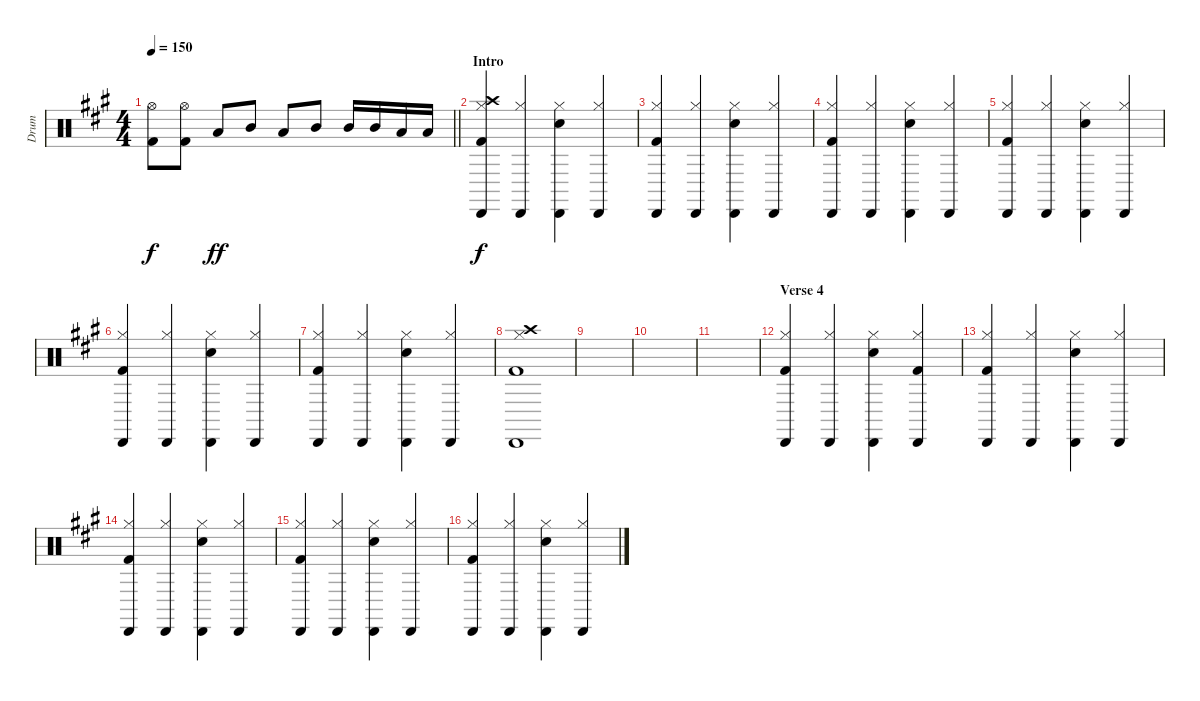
\track ("Drum " "Drum ") {instrument percussion}
\staff {score}
\articulation defaults
\ts (4 4)
\tempo 150
\clef neutral
\barLineRight lightlight
\ks a
("Hi-Hat (open)" "Kick (hit) 2").8{dy f} ("Hi-Hat (open)" "Kick (hit) 2").8 "Low Tom (hit)".8{dy ff} "Mid Tom (hit)".8 "Low Tom (hit)".8 "Mid Tom (hit)".8 "Mid Tom (hit)".16 "Mid Tom (hit)".16 "Low Tom (hit)".16 "Low Tom (hit)".16 |
\section ("" "Intro")
("Hi-Hat (closed)" "Crash high (hit)" "Cabasa (hit)" "Kick (hit) 2").4{dy f} ("Hi-Hat (closed)" "Cabasa (hit)").4 ("Hi-Hat (closed)" "Snare (hit) 2" "Cabasa (hit)").4 ("Hi-Hat (closed)" "Cabasa (hit)").4 |
("Hi-Hat (closed)" "Cabasa (hit)" "Kick (hit) 2").4 ("Hi-Hat (closed)" "Cabasa (hit)").4 ("Hi-Hat (closed)" "Snare (hit) 2" "Cabasa (hit)").4 ("Hi-Hat (closed)" "Cabasa (hit)").4 |
("Hi-Hat (closed)" "Cabasa (hit)" "Kick (hit) 2").4 ("Hi-Hat (closed)" "Cabasa (hit)").4 ("Hi-Hat (closed)" "Snare (hit) 2" "Cabasa (hit)").4 ("Hi-Hat (closed)" "Cabasa (hit)").4 |
("Hi-Hat (closed)" "Cabasa (hit)" "Kick (hit) 2").4 ("Hi-Hat (closed)" "Cabasa (hit)").4 ("Hi-Hat (closed)" "Snare (hit) 2" "Cabasa (hit)").4 ("Hi-Hat (closed)" "Cabasa (hit)").4 |
("Hi-Hat (closed)" "Cabasa (hit)" "Kick (hit) 2").4 ("Hi-Hat (closed)" "Cabasa (hit)").4 ("Hi-Hat (closed)" "Snare (hit) 2" "Cabasa (hit)").4 ("Hi-Hat (closed)" "Cabasa (hit)").4 |
("Hi-Hat (closed)" "Cabasa (hit)" "Kick (hit) 2").4 ("Hi-Hat (closed)" "Cabasa (hit)").4 ("Hi-Hat (closed)" "Snare (hit) 2" "Cabasa (hit)").4 ("Hi-Hat (closed)" "Cabasa (hit)").4 |
("Hi-Hat (closed)" "Crash high (hit)" "Cabasa (hit)" "Kick (hit) 2").1 |
|
|
|
\section ("" "Verse 4")
("Hi-Hat (closed)" "Cabasa (hit)" "Kick (hit) 2").4 ("Hi-Hat (closed)" "Cabasa (hit)").4 ("Hi-Hat (closed)" "Snare (hit) 2" "Cabasa (hit)").4 ("Hi-Hat (closed)" "Cabasa (hit)" "Kick (hit) 2").4 |
("Hi-Hat (closed)" "Cabasa (hit)" "Kick (hit) 2").4 ("Hi-Hat (closed)" "Cabasa (hit)").4 ("Hi-Hat (closed)" "Snare (hit) 2" "Cabasa (hit)").4 ("Hi-Hat (closed)" "Cabasa (hit)").4 |
("Hi-Hat (closed)" "Cabasa (hit)" "Kick (hit) 2").4 ("Hi-Hat (closed)" "Cabasa (hit)").4 ("Hi-Hat (closed)" "Snare (hit) 2" "Cabasa (hit)").4 ("Hi-Hat (closed)" "Cabasa (hit)").4 |
("Hi-Hat (closed)" "Cabasa (hit)" "Kick (hit) 2").4 ("Hi-Hat (closed)" "Cabasa (hit)").4 ("Hi-Hat (closed)" "Snare (hit) 2" "Cabasa (hit)").4 ("Hi-Hat (closed)" "Cabasa (hit)").4 |
("Hi-Hat (closed)" "Cabasa (hit)" "Kick (hit) 2").4 ("Hi-Hat (closed)" "Cabasa (hit)").4 ("Hi-Hat (closed)" "Snare (hit) 2" "Cabasa (hit)").4 ("Hi-Hat (closed)" "Cabasa (hit)").4
